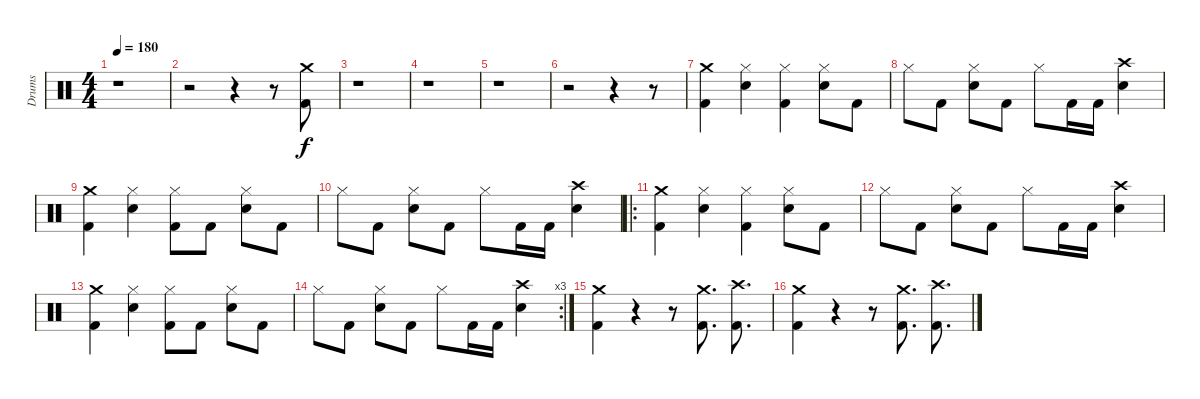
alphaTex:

\track ("Drums" "Drums") {instrument percussion}
\staff {score}
\articulation defaults
\ts (4 4)
\tempo 180
\clef neutral
\ks c
r.1{dy f} |
r.2 r.4 r.8 ("Crash medium (hit)" "Kick (hit) 2").8 |
r.1 |
r.1 |
r.1 |
r.2 r.4 r.8 |
("Crash medium (hit)" "Kick (hit) 2").4 ("Hi-Hat (closed)" "Electric Snare (hit)").4 ("Hi-Hat (closed)" "Kick (hit) 2").4 ("Hi-Hat (closed)" "Electric Snare (hit)").8 "Kick (hit) 2".8 |
"Hi-Hat (closed)".8 "Kick (hit) 2".8 ("Hi-Hat (closed)" "Electric Snare (hit)").8 "Kick (hit) 2".8 "Hi-Hat (closed)".8 "Kick (hit) 2".16 "Kick (hit) 2".16 ("Crash high (hit)" "Electric Snare (hit)").4 |
("Crash medium (hit)" "Kick (hit) 2").4 ("Hi-Hat (closed)" "Electric Snare (hit)").4 ("Hi-Hat (closed)" "Kick (hit) 2").8 "Kick (hit) 2".8 ("Hi-Hat (closed)" "Electric Snare (hit)").8 "Kick (hit) 2".8 |
"Hi-Hat (closed)".8 "Kick (hit) 2".8 ("Hi-Hat (closed)" "Electric Snare (hit)").8 "Kick (hit) 2".8 "Hi-Hat (closed)".8 "Kick (hit) 2".16 "Kick (hit) 2".16 ("Crash high (hit)" "Electric Snare (hit)").4 |
\ro
("Crash medium (hit)" "Kick (hit) 2").4 ("Hi-Hat (closed)" "Electric Snare (hit)").4 ("Hi-Hat (closed)" "Kick (hit) 2").4 ("Hi-Hat (closed)" "Electric Snare (hit)").8 "Kick (hit) 2".8 |
"Hi-Hat (closed)".8 "Kick (hit) 2".8 ("Hi-Hat (closed)" "Electric Snare (hit)").8 "Kick (hit) 2".8 "Hi-Hat (closed)".8 "Kick (hit) 2".16 "Kick (hit) 2".16 ("Crash high (hit)" "Electric Snare (hit)").4 |
("Crash medium (hit)" "Kick (hit) 2").4 ("Hi-Hat (closed)" "Electric Snare (hit)").4 ("Hi-Hat (closed)" "Kick (hit) 2").8 "Kick (hit) 2".8 ("Hi-Hat (closed)" "Electric Snare (hit)").8 "Kick (hit) 2".8 |
\rc 3 "Hi-Hat (closed)".8 "Kick (hit) 2".8
("Hi-Hat (closed)" "Electric Snare (hit)").8 "Kick (hit) 2".8 "Hi-Hat (closed)".8 "Kick (hit) 2".16 "Kick (hit) 2".16 ("Crash high (hit)" "Electric Snare (hit)").4 |
("Crash medium (hit)" "Kick (hit) 2").4 r.4 r.8 ("Crash medium (hit)" "Kick (hit) 2").8{d} ("Crash high (hit)" "Kick (hit) 2").8{d} |
("Crash medium (hit)" "Kick (hit) 2").4 r.4 r.8 ("Crash medium (hit)" "Kick (hit) 2").8{d} ("Crash high (hit)" "Kick (hit) 2").8{d}
